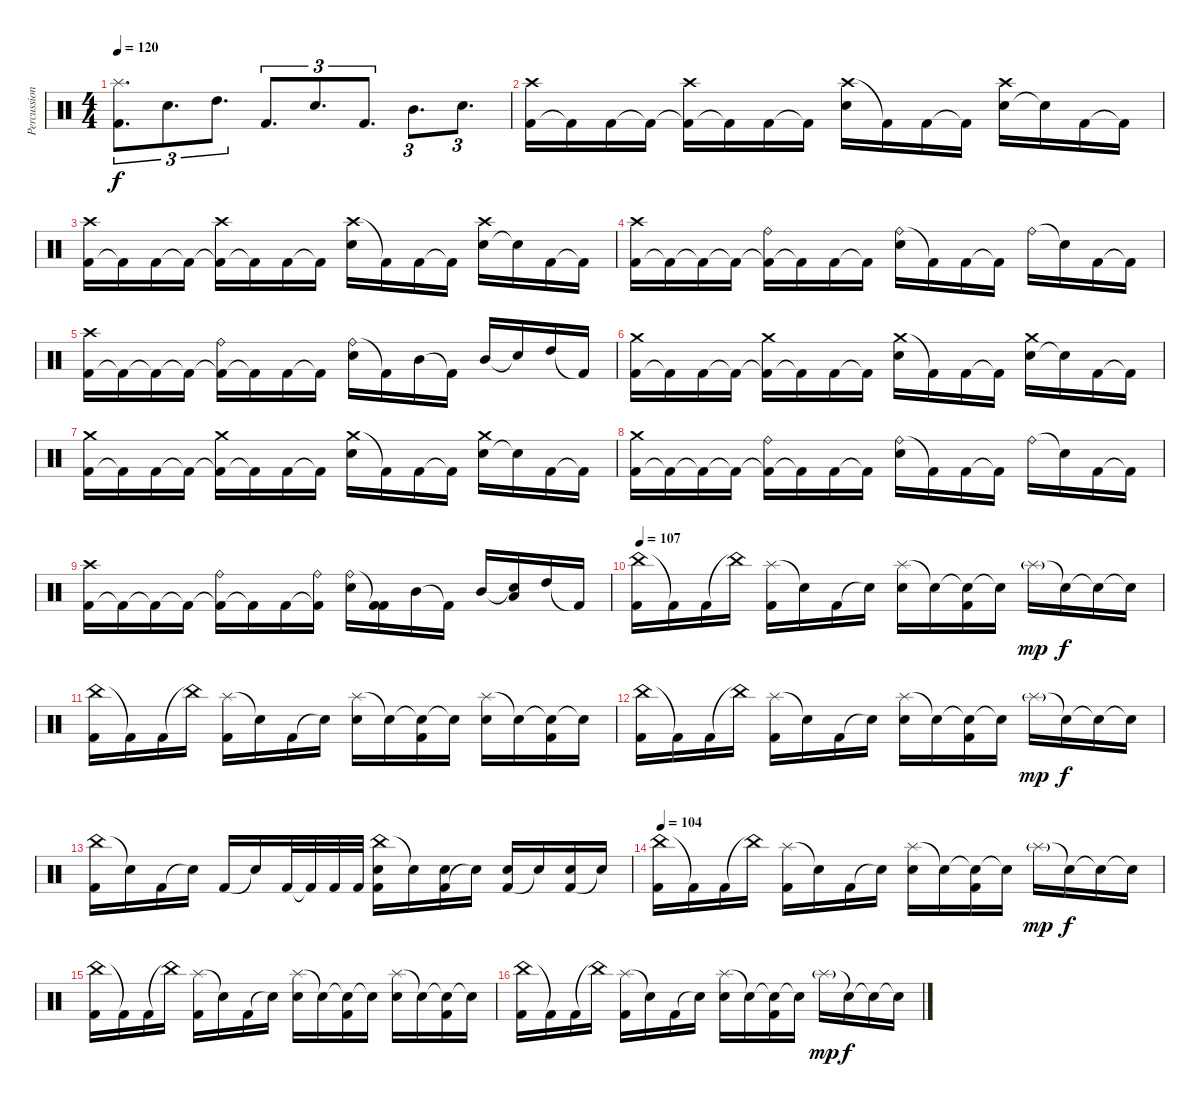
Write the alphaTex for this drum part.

\track ("Percussion" "Percussion") {instrument percussion}
\staff {score}
\articulation defaults
\ts (4 4)
\tempo 120
\clef neutral
\ks c
("Splash (hit)" "Kick (hit) 2").8{d tu (3 2) dy f} "Electric Snare (hit)".8{d tu (3 2)} "High Tom (hit)".8{d tu (3 2)} "Kick (hit) 2".8{d tu (3 2)} "Electric Snare (hit)".8{d tu (3 2)} "Kick (hit) 2".8{d tu (3 2)} "Mid Tom (hit)".8{d tu (3 2)} "Electric Snare (hit)".8{d tu (3 2)} |
("Kick (hit) 2" "Crash high (hit)").16 "Kick (hit) 2"{t}.16 "Kick (hit) 2".16 "Kick (hit) 2"{t}.16 ("Kick (hit) 2"{t} "Crash high (hit)").16 "Kick (hit) 2"{t}.16 "Kick (hit) 2".16 "Kick (hit) 2"{t}.16 ("Crash high (hit)" "Electric Snare (hit)").16 "Kick (hit) 2"{t}.16 "Kick (hit) 2".16 "Kick (hit) 2"{t}.16 ("Electric Snare (hit)" "Crash high (hit)").16 "Snare (hit)"{t}.16 "Kick (hit) 2".16 "Kick (hit) 2"{t}.16 |
("Kick (hit) 2" "Crash high (hit)").16 "Kick (hit) 2"{t}.16 "Kick (hit) 2".16 "Kick (hit) 2"{t}.16 ("Kick (hit) 2"{t} "Crash high (hit)").16 "Kick (hit) 2"{t}.16 "Kick (hit) 2".16 "Kick (hit) 2"{t}.16 ("Crash high (hit)" "Electric Snare (hit)").16 "Kick (hit) 2"{t}.16 "Kick (hit) 2".16 "Kick (hit) 2"{t}.16 ("Electric Snare (hit)" "Crash high (hit)").16 "Snare (hit)"{t}.16 "Kick (hit) 2".16 "Kick (hit) 2"{t}.16 |
("Kick (hit) 2" "Crash high (hit)").16 "Kick (hit) 2"{t}.16 "Kick (hit) 2"{t}.16 "Kick (hit) 2"{t}.16 ("Kick (hit) 2"{t} "Ride (bell)").16 "Kick (hit) 2"{t}.16 "Kick (hit) 2".16 "Kick (hit) 2"{t}.16 ("Ride (bell)" "Electric Snare (hit)").16 "Kick (hit) 2"{t}.16 "Kick (hit) 2".16 "Kick (hit) 2"{t}.16 "Ride (bell)".16 "Snare (hit)"{t}.16 "Kick (hit) 2".16 "Kick (hit) 2"{t}.16 |
("Kick (hit) 2" "Crash high (hit)").16 "Kick (hit) 2"{t}.16 "Kick (hit) 2"{t}.16 "Kick (hit) 2"{t}.16 ("Kick (hit) 2"{t} "Ride (bell)").16 "Kick (hit) 2"{t}.16 "Kick (hit) 2".16 "Kick (hit) 2"{t}.16 ("Ride (bell)" "Electric Snare (hit)").16 "Kick (hit) 2"{t}.16 "Mid Tom (hit)".16 "Kick (hit) 2"{t}.16 "Mid Tom (hit)".16 "Snare (hit)"{t}.16 "High Tom (hit)".16 "Kick (hit) 2"{t}.16 |
("Kick (hit) 2" "Crash medium (hit)").16 "Kick (hit) 2"{t}.16 "Kick (hit) 2".16 "Kick (hit) 2"{t}.16 ("Kick (hit) 2"{t} "Crash medium (hit)").16 "Kick (hit) 2"{t}.16 "Kick (hit) 2".16 "Kick (hit) 2"{t}.16 ("Crash medium (hit)" "Electric Snare (hit)").16 "Kick (hit) 2"{t}.16 "Kick (hit) 2".16 "Kick (hit) 2"{t}.16 ("Electric Snare (hit)" "Crash medium (hit)").16 "Snare (hit)"{t}.16 "Kick (hit) 2".16 "Kick (hit) 2"{t}.16 |
("Kick (hit) 2" "Crash medium (hit)").16 "Kick (hit) 2"{t}.16 "Kick (hit) 2".16 "Kick (hit) 2"{t}.16 ("Kick (hit) 2"{t} "Crash medium (hit)").16 "Kick (hit) 2"{t}.16 "Kick (hit) 2".16 "Kick (hit) 2"{t}.16 ("Crash medium (hit)" "Electric Snare (hit)").16 "Kick (hit) 2"{t}.16 "Kick (hit) 2".16 "Kick (hit) 2"{t}.16 ("Electric Snare (hit)" "Crash medium (hit)").16 "Snare (hit)"{t}.16 "Kick (hit) 2".16 "Kick (hit) 2"{t}.16 |
("Kick (hit) 2" "Crash medium (hit)").16 "Kick (hit) 2"{t}.16 "Kick (hit) 2"{t}.16 "Kick (hit) 2"{t}.16 ("Kick (hit) 2"{t} "Ride (bell)").16 "Kick (hit) 2"{t}.16 "Kick (hit) 2".16 "Kick (hit) 2"{t}.16 ("Ride (bell)" "Electric Snare (hit)").16 "Kick (hit) 2"{t}.16 "Kick (hit) 2".16 "Kick (hit) 2"{t}.16 "Ride (bell)".16 "Snare (hit)"{t}.16 "Kick (hit) 2".16 "Kick (hit) 2"{t}.16 |
("Kick (hit) 2" "Crash high (hit)").16 "Kick (hit) 2"{t}.16 "Kick (hit) 2"{t}.16 "Kick (hit) 2"{t}.16 ("Kick (hit) 2"{t} "Ride (bell)").16 "Kick (hit) 2"{t}.16 "Kick (hit) 2".16 ("Kick (hit) 2"{t} "Ride (bell)").16 ("Ride (bell)" "Electric Snare (hit)").16 ("Kick (hit) 2"{t} "Kick (hit) 2").16 "Mid Tom (hit)".16 "Kick (hit) 2"{t}.16 "Mid Tom (hit)".16 ("Snare (hit)"{t} "Low Tom (hit)").16 "High Tom (hit)".16 "Kick (hit) 2"{t}.16 |
\tempo 107
("China (hit)" "Kick (hit) 2").16 "Kick (hit) 2"{t}.16 "Kick (hit) 2".16 "China (hit)"{t}.16 ("Splash (hit)" "Kick (hit) 2").16 "Snare (hit)"{t}.16 "Kick (hit) 2".16 "Snare (hit)"{t}.16 ("Splash (hit)" "Electric Snare (hit)").16 "Snare (hit)"{t}.16 ("Snare (hit)"{t} "Kick (hit) 2").16 "Snare (hit)"{t}.16 "Splash (hit)"{g}.16{dy mp} "Snare (hit)"{t}.16{dy f} "Snare (hit)"{t}.16 "Snare (hit)"{t}.16 |
("China (hit)" "Kick (hit) 2").16 "Kick (hit) 2"{t}.16 "Kick (hit) 2".16 "China (hit)"{t}.16 ("Splash (hit)" "Kick (hit) 2").16 "Snare (hit)"{t}.16 "Kick (hit) 2".16 "Snare (hit)"{t}.16 ("Splash (hit)" "Electric Snare (hit)").16 "Snare (hit)"{t}.16 ("Snare (hit)"{t} "Kick (hit) 2").16 "Snare (hit)"{t}.16 ("Splash (hit)" "Electric Snare (hit)").16 "Snare (hit)"{t}.16 ("Snare (hit)"{t} "Kick (hit) 2").16 "Snare (hit)"{t}.16 |
("China (hit)" "Kick (hit) 2").16 "Kick (hit) 2"{t}.16 "Kick (hit) 2".16 "China (hit)"{t}.16 ("Splash (hit)" "Kick (hit) 2").16 "Snare (hit)"{t}.16 "Kick (hit) 2".16 "Snare (hit)"{t}.16 ("Splash (hit)" "Electric Snare (hit)").16 "Snare (hit)"{t}.16 ("Snare (hit)"{t} "Kick (hit) 2").16 "Snare (hit)"{t}.16 "Splash (hit)"{g}.16{dy mp} "Snare (hit)"{t}.16{dy f} "Snare (hit)"{t}.16 "Snare (hit)"{t}.16 |
("China (hit)" "Kick (hit) 2").16 "Snare (hit)"{t}.16 "Kick (hit) 2".16 "Snare (hit)"{t}.16 "Kick (hit) 2".16 "Snare (hit)"{t}.16 "Kick (hit) 2".32 "Kick (hit) 2"{t}.32 "Kick (hit) 2".32 "Kick (hit) 2".32 ("China (hit)" "Kick (hit) 2" "Electric Snare (hit)").16 "Snare (hit)"{t}.16 ("Kick (hit) 2" "Electric Snare (hit)").16 "Snare (hit)"{t}.16 ("Kick (hit) 2" "Electric Snare (hit)").16 "Snare (hit)"{t}.16 ("Kick (hit) 2" "Electric Snare (hit)").16 "Snare (hit)"{t}.16 |
\tempo 104
("China (hit)" "Kick (hit) 2").16 "Kick (hit) 2"{t}.16 "Kick (hit) 2".16 "China (hit)"{t}.16 ("Splash (hit)" "Kick (hit) 2").16 "Snare (hit)"{t}.16 "Kick (hit) 2".16 "Snare (hit)"{t}.16 ("Splash (hit)" "Electric Snare (hit)").16 "Snare (hit)"{t}.16 ("Snare (hit)"{t} "Kick (hit) 2").16 "Snare (hit)"{t}.16 "Splash (hit)"{g}.16{dy mp} "Snare (hit)"{t}.16{dy f} "Snare (hit)"{t}.16 "Snare (hit)"{t}.16 |
("China (hit)" "Kick (hit) 2").16 "Kick (hit) 2"{t}.16 "Kick (hit) 2".16 "China (hit)"{t}.16 ("Splash (hit)" "Kick (hit) 2").16 "Snare (hit)"{t}.16 "Kick (hit) 2".16 "Snare (hit)"{t}.16 ("Splash (hit)" "Electric Snare (hit)").16 "Snare (hit)"{t}.16 ("Snare (hit)"{t} "Kick (hit) 2").16 "Snare (hit)"{t}.16 ("Splash (hit)" "Electric Snare (hit)").16 "Snare (hit)"{t}.16 ("Snare (hit)"{t} "Kick (hit) 2").16 "Snare (hit)"{t}.16 |
("China (hit)" "Kick (hit) 2").16 "Kick (hit) 2"{t}.16 "Kick (hit) 2".16 "China (hit)"{t}.16 ("Splash (hit)" "Kick (hit) 2").16 "Snare (hit)"{t}.16 "Kick (hit) 2".16 "Snare (hit)"{t}.16 ("Splash (hit)" "Electric Snare (hit)").16 "Snare (hit)"{t}.16 ("Snare (hit)"{t} "Kick (hit) 2").16 "Snare (hit)"{t}.16 "Splash (hit)"{g}.16{dy mp} "Snare (hit)"{t}.16{dy f} "Snare (hit)"{t}.16 "Snare (hit)"{t}.16
